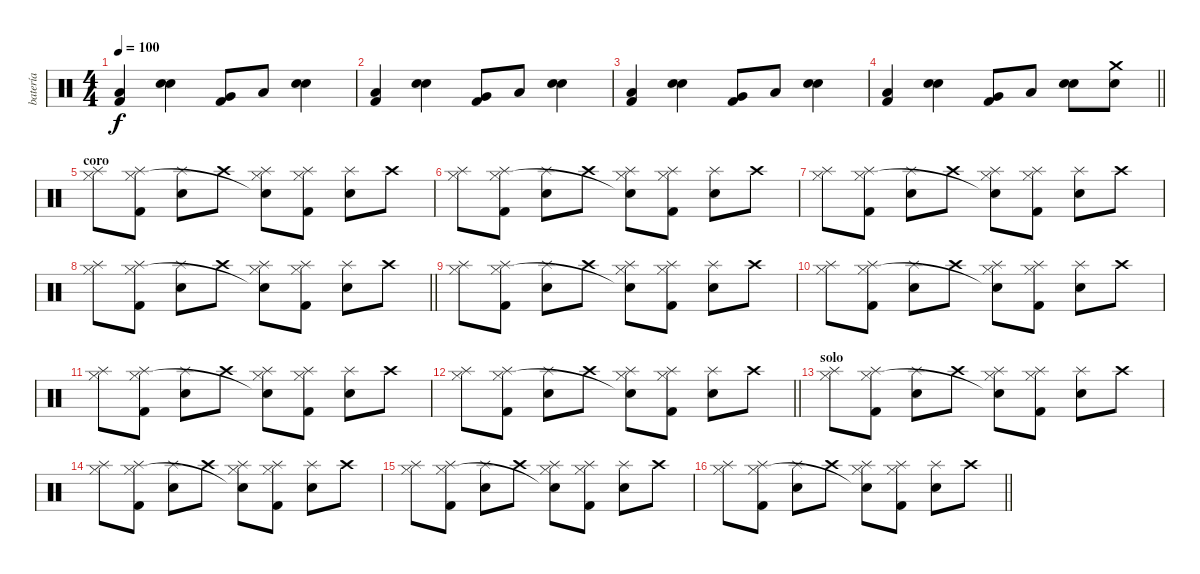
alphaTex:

\track ("batería" "batería") {instrument percussion}
\staff {score}
\articulation defaults
\ts (4 4)
\tempo 100
\clef neutral
\ks c
("Kick (hit) 2" "Low Floor Tom (hit)").4{dy f} ("Snare (hit) 2" "Snare (hit) 2").4 ("Kick (hit) 2" "Very Low Tom (hit)").8 "Low Floor Tom (hit)".8 ("Snare (hit) 2" "Snare (hit) 2").4 |
("Kick (hit) 2" "Low Floor Tom (hit)").4 ("Snare (hit) 2" "Snare (hit) 2").4 ("Kick (hit) 2" "Very Low Tom (hit)").8 "Low Floor Tom (hit)".8 ("Snare (hit) 2" "Snare (hit) 2").4 |
("Kick (hit) 2" "Low Floor Tom (hit)").4 ("Snare (hit) 2" "Snare (hit) 2").4 ("Kick (hit) 2" "Very Low Tom (hit)").8 "Low Floor Tom (hit)".8 ("Snare (hit) 2" "Snare (hit) 2").4 |
\barLineRight lightlight
("Kick (hit) 2" "Low Floor Tom (hit)").4 ("Snare (hit) 2" "Snare (hit) 2").4 ("Kick (hit) 2" "Very Low Tom (hit)").8 "Low Floor Tom (hit)".8 ("Snare (hit) 2" "Snare (hit) 2").8 ("Snare (hit) 2" "Crash medium (hit)").8 |
\section ("" "coro")
("Splash (hit)" "Hi-Hat (closed)").8 ("Kick (hit) 2" "Splash (hit)" "Hi-Hat (closed)").8 ("Splash (hit)" "Snare (hit) 2").8 "Crash high (hit)".8 ("Splash (hit)" "Hi-Hat (closed)" "Snare (hit)"{t}).8 ("Kick (hit) 2" "Splash (hit)" "Hi-Hat (closed)").8 ("Splash (hit)" "Snare (hit) 2").8 "Crash high (hit)".8 |
("Splash (hit)" "Hi-Hat (closed)").8 ("Kick (hit) 2" "Splash (hit)" "Hi-Hat (closed)").8 ("Splash (hit)" "Snare (hit) 2").8 "Crash high (hit)".8 ("Splash (hit)" "Hi-Hat (closed)" "Snare (hit)"{t}).8 ("Kick (hit) 2" "Splash (hit)" "Hi-Hat (closed)").8 ("Splash (hit)" "Snare (hit) 2").8 "Crash high (hit)".8 |
("Splash (hit)" "Hi-Hat (closed)").8 ("Kick (hit) 2" "Splash (hit)" "Hi-Hat (closed)").8 ("Splash (hit)" "Snare (hit) 2").8 "Crash high (hit)".8 ("Splash (hit)" "Hi-Hat (closed)" "Snare (hit)"{t}).8 ("Kick (hit) 2" "Splash (hit)" "Hi-Hat (closed)").8 ("Splash (hit)" "Snare (hit) 2").8 "Crash high (hit)".8 |
\barLineRight lightlight
("Splash (hit)" "Hi-Hat (closed)").8 ("Kick (hit) 2" "Splash (hit)" "Hi-Hat (closed)").8 ("Splash (hit)" "Snare (hit) 2").8 "Crash high (hit)".8 ("Splash (hit)" "Hi-Hat (closed)" "Snare (hit)"{t}).8 ("Kick (hit) 2" "Splash (hit)" "Hi-Hat (closed)").8 ("Splash (hit)" "Snare (hit) 2").8 "Crash high (hit)".8 |
("Splash (hit)" "Hi-Hat (closed)").8 ("Kick (hit) 2" "Splash (hit)" "Hi-Hat (closed)").8 ("Splash (hit)" "Snare (hit) 2").8 "Crash high (hit)".8 ("Splash (hit)" "Hi-Hat (closed)" "Snare (hit)"{t}).8 ("Kick (hit) 2" "Splash (hit)" "Hi-Hat (closed)").8 ("Splash (hit)" "Snare (hit) 2").8 "Crash high (hit)".8 |
("Splash (hit)" "Hi-Hat (closed)").8 ("Kick (hit) 2" "Splash (hit)" "Hi-Hat (closed)").8 ("Splash (hit)" "Snare (hit) 2").8 "Crash high (hit)".8 ("Splash (hit)" "Hi-Hat (closed)" "Snare (hit)"{t}).8 ("Kick (hit) 2" "Splash (hit)" "Hi-Hat (closed)").8 ("Splash (hit)" "Snare (hit) 2").8 "Crash high (hit)".8 |
("Splash (hit)" "Hi-Hat (closed)").8 ("Kick (hit) 2" "Splash (hit)" "Hi-Hat (closed)").8 ("Splash (hit)" "Snare (hit) 2").8 "Crash high (hit)".8 ("Splash (hit)" "Hi-Hat (closed)" "Snare (hit)"{t}).8 ("Kick (hit) 2" "Splash (hit)" "Hi-Hat (closed)").8 ("Splash (hit)" "Snare (hit) 2").8 "Crash high (hit)".8 |
\barLineRight lightlight
("Splash (hit)" "Hi-Hat (closed)").8 ("Kick (hit) 2" "Splash (hit)" "Hi-Hat (closed)").8 ("Splash (hit)" "Snare (hit) 2").8 "Crash high (hit)".8 ("Splash (hit)" "Hi-Hat (closed)" "Snare (hit)"{t}).8 ("Kick (hit) 2" "Splash (hit)" "Hi-Hat (closed)").8 ("Splash (hit)" "Snare (hit) 2").8 "Crash high (hit)".8 |
\section ("" "solo")
("Splash (hit)" "Hi-Hat (closed)").8 ("Kick (hit) 2" "Splash (hit)" "Hi-Hat (closed)").8 ("Splash (hit)" "Snare (hit) 2").8 "Crash high (hit)".8 ("Splash (hit)" "Hi-Hat (closed)" "Snare (hit)"{t}).8 ("Kick (hit) 2" "Splash (hit)" "Hi-Hat (closed)").8 ("Splash (hit)" "Snare (hit) 2").8 "Crash high (hit)".8 |
("Splash (hit)" "Hi-Hat (closed)").8 ("Kick (hit) 2" "Splash (hit)" "Hi-Hat (closed)").8 ("Splash (hit)" "Snare (hit) 2").8 "Crash high (hit)".8 ("Splash (hit)" "Hi-Hat (closed)" "Snare (hit)"{t}).8 ("Kick (hit) 2" "Splash (hit)" "Hi-Hat (closed)").8 ("Splash (hit)" "Snare (hit) 2").8 "Crash high (hit)".8 |
("Splash (hit)" "Hi-Hat (closed)").8 ("Kick (hit) 2" "Splash (hit)" "Hi-Hat (closed)").8 ("Splash (hit)" "Snare (hit) 2").8 "Crash high (hit)".8 ("Splash (hit)" "Hi-Hat (closed)" "Snare (hit)"{t}).8 ("Kick (hit) 2" "Splash (hit)" "Hi-Hat (closed)").8 ("Splash (hit)" "Snare (hit) 2").8 "Crash high (hit)".8 |
\barLineRight lightlight
("Splash (hit)" "Hi-Hat (closed)").8 ("Kick (hit) 2" "Splash (hit)" "Hi-Hat (closed)").8 ("Splash (hit)" "Snare (hit) 2").8 "Crash high (hit)".8 ("Splash (hit)" "Hi-Hat (closed)" "Snare (hit)"{t}).8 ("Kick (hit) 2" "Splash (hit)" "Hi-Hat (closed)").8 ("Splash (hit)" "Snare (hit) 2").8 "Crash high (hit)".8
